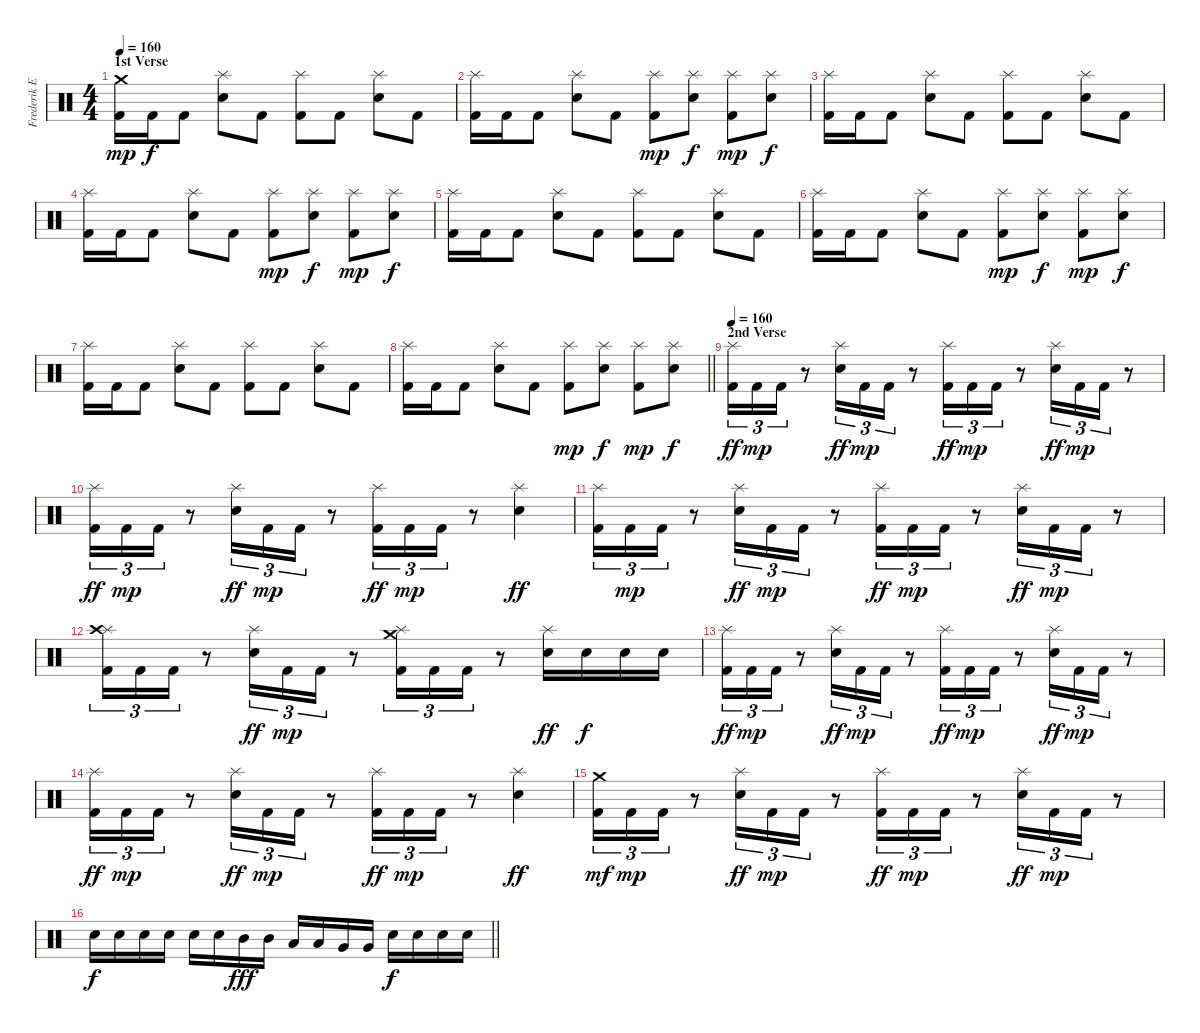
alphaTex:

\track ("Frederik Ehmke" "Frederik E") {instrument percussion}
\staff {score}
\articulation defaults
\ts (4 4)
\section ("" "1st Verse")
\tempo 160
\clef neutral
\ks c
("Crash medium (hit)" "Kick (hit) 2").16{dy mp} "Kick (hit) 2".16{dy f} "Kick (hit) 2".8 ("Splash (hit)" "Electric Snare (hit)").8 "Kick (hit) 2".8 ("Splash (hit)" "Kick (hit) 2").8 "Kick (hit) 2".8 ("Splash (hit)" "Electric Snare (hit)").8 "Kick (hit) 2".8 |
("Splash (hit)" "Kick (hit) 2").16 "Kick (hit) 2".16 "Kick (hit) 2".8 ("Splash (hit)" "Electric Snare (hit)").8 "Kick (hit) 2".8 ("Splash (hit)" "Kick (hit) 2").8{dy mp} ("Splash (hit)" "Electric Snare (hit)").8{dy f} ("Splash (hit)" "Kick (hit) 2").8{dy mp} ("Splash (hit)" "Electric Snare (hit)").8{dy f} |
("Splash (hit)" "Kick (hit) 2").16 "Kick (hit) 2".16 "Kick (hit) 2".8 ("Splash (hit)" "Electric Snare (hit)").8 "Kick (hit) 2".8 ("Splash (hit)" "Kick (hit) 2").8 "Kick (hit) 2".8 ("Splash (hit)" "Electric Snare (hit)").8 "Kick (hit) 2".8 |
("Splash (hit)" "Kick (hit) 2").16 "Kick (hit) 2".16 "Kick (hit) 2".8 ("Splash (hit)" "Electric Snare (hit)").8 "Kick (hit) 2".8 ("Splash (hit)" "Kick (hit) 2").8{dy mp} ("Splash (hit)" "Electric Snare (hit)").8{dy f} ("Splash (hit)" "Kick (hit) 2").8{dy mp} ("Splash (hit)" "Electric Snare (hit)").8{dy f} |
("Splash (hit)" "Kick (hit) 2").16 "Kick (hit) 2".16 "Kick (hit) 2".8 ("Splash (hit)" "Electric Snare (hit)").8 "Kick (hit) 2".8 ("Splash (hit)" "Kick (hit) 2").8 "Kick (hit) 2".8 ("Splash (hit)" "Electric Snare (hit)").8 "Kick (hit) 2".8 |
("Splash (hit)" "Kick (hit) 2").16 "Kick (hit) 2".16 "Kick (hit) 2".8 ("Splash (hit)" "Electric Snare (hit)").8 "Kick (hit) 2".8 ("Splash (hit)" "Kick (hit) 2").8{dy mp} ("Splash (hit)" "Electric Snare (hit)").8{dy f} ("Splash (hit)" "Kick (hit) 2").8{dy mp} ("Splash (hit)" "Electric Snare (hit)").8{dy f} |
("Splash (hit)" "Kick (hit) 2").16 "Kick (hit) 2".16 "Kick (hit) 2".8 ("Splash (hit)" "Electric Snare (hit)").8 "Kick (hit) 2".8 ("Splash (hit)" "Kick (hit) 2").8 "Kick (hit) 2".8 ("Splash (hit)" "Electric Snare (hit)").8 "Kick (hit) 2".8 |
\barLineRight lightlight
("Splash (hit)" "Kick (hit) 2").16 "Kick (hit) 2".16 "Kick (hit) 2".8 ("Splash (hit)" "Electric Snare (hit)").8 "Kick (hit) 2".8 ("Splash (hit)" "Kick (hit) 2").8{dy mp} ("Splash (hit)" "Electric Snare (hit)").8{dy f} ("Splash (hit)" "Kick (hit) 2").8{dy mp} ("Splash (hit)" "Electric Snare (hit)").8{dy f} |
\section ("" "2nd Verse")
\tempo 160
("Splash (hit)" "Kick (hit) 2").16{tu (3 2) dy ff} "Kick (hit) 2".16{tu (3 2) dy mp} "Kick (hit) 2".16{tu (3 2)} r.8 ("Splash (hit)" "Electric Snare (hit)").16{tu (3 2) dy ff} "Kick (hit) 2".16{tu (3 2) dy mp} "Kick (hit) 2".16{tu (3 2)} r.8 ("Splash (hit)" "Kick (hit) 2").16{tu (3 2) dy ff} "Kick (hit) 2".16{tu (3 2) dy mp} "Kick (hit) 2".16{tu (3 2)} r.8 ("Splash (hit)" "Electric Snare (hit)").16{tu (3 2) dy ff} "Kick (hit) 2".16{tu (3 2) dy mp} "Kick (hit) 2".16{tu (3 2)} r.8 |
("Splash (hit)" "Kick (hit) 2").16{tu (3 2) dy ff} "Kick (hit) 2".16{tu (3 2) dy mp} "Kick (hit) 2".16{tu (3 2)} r.8 ("Splash (hit)" "Electric Snare (hit)").16{tu (3 2) dy ff} "Kick (hit) 2".16{tu (3 2) dy mp} "Kick (hit) 2".16{tu (3 2)} r.8 ("Splash (hit)" "Kick (hit) 2").16{tu (3 2) dy ff} "Kick (hit) 2".16{tu (3 2) dy mp} "Kick (hit) 2".16{tu (3 2)} r.8 ("Splash (hit)" "Electric Snare (hit)").4{dy ff} |
("Splash (hit)" "Kick (hit) 2").16{tu (3 2)} "Kick (hit) 2".16{tu (3 2) dy mp} "Kick (hit) 2".16{tu (3 2)} r.8 ("Splash (hit)" "Electric Snare (hit)").16{tu (3 2) dy ff} "Kick (hit) 2".16{tu (3 2) dy mp} "Kick (hit) 2".16{tu (3 2)} r.8 ("Splash (hit)" "Kick (hit) 2").16{tu (3 2) dy ff} "Kick (hit) 2".16{tu (3 2) dy mp} "Kick (hit) 2".16{tu (3 2)} r.8 ("Splash (hit)" "Electric Snare (hit)").16{tu (3 2) dy ff} "Kick (hit) 2".16{tu (3 2) dy mp} "Kick (hit) 2".16{tu (3 2)} r.8 |
("Splash (hit)" "Crash high (hit)" "Kick (hit) 2").16{tu (3 2)} "Kick (hit) 2".16{tu (3 2)} "Kick (hit) 2".16{tu (3 2)} r.8 ("Splash (hit)" "Electric Snare (hit)").16{tu (3 2) dy ff} "Kick (hit) 2".16{tu (3 2) dy mp} "Kick (hit) 2".16{tu (3 2)} r.8 ("Splash (hit)" "Crash medium (hit)" "Kick (hit) 2").16{tu (3 2)} "Kick (hit) 2".16{tu (3 2)} "Kick (hit) 2".16{tu (3 2)} r.8 ("Splash (hit)" "Electric Snare (hit)").16{dy ff} "Electric Snare (hit)".16{dy f} "Electric Snare (hit)".16 "Electric Snare (hit)".16 |
("Splash (hit)" "Kick (hit) 2").16{tu (3 2) dy ff} "Kick (hit) 2".16{tu (3 2) dy mp} "Kick (hit) 2".16{tu (3 2)} r.8 ("Splash (hit)" "Electric Snare (hit)").16{tu (3 2) dy ff} "Kick (hit) 2".16{tu (3 2) dy mp} "Kick (hit) 2".16{tu (3 2)} r.8 ("Splash (hit)" "Kick (hit) 2").16{tu (3 2) dy ff} "Kick (hit) 2".16{tu (3 2) dy mp} "Kick (hit) 2".16{tu (3 2)} r.8 ("Splash (hit)" "Electric Snare (hit)").16{tu (3 2) dy ff} "Kick (hit) 2".16{tu (3 2) dy mp} "Kick (hit) 2".16{tu (3 2)} r.8 |
("Splash (hit)" "Kick (hit) 2").16{tu (3 2) dy ff} "Kick (hit) 2".16{tu (3 2) dy mp} "Kick (hit) 2".16{tu (3 2)} r.8 ("Splash (hit)" "Electric Snare (hit)").16{tu (3 2) dy ff} "Kick (hit) 2".16{tu (3 2) dy mp} "Kick (hit) 2".16{tu (3 2)} r.8 ("Splash (hit)" "Kick (hit) 2").16{tu (3 2) dy ff} "Kick (hit) 2".16{tu (3 2) dy mp} "Kick (hit) 2".16{tu (3 2)} r.8 ("Splash (hit)" "Electric Snare (hit)").4{dy ff} |
("Crash medium (hit)" "Kick (hit) 2").16{tu (3 2) dy mf} "Kick (hit) 2".16{tu (3 2) dy mp} "Kick (hit) 2".16{tu (3 2)} r.8 ("Splash (hit)" "Electric Snare (hit)").16{tu (3 2) dy ff} "Kick (hit) 2".16{tu (3 2) dy mp} "Kick (hit) 2".16{tu (3 2)} r.8 ("Splash (hit)" "Kick (hit) 2").16{tu (3 2) dy ff} "Kick (hit) 2".16{tu (3 2) dy mp} "Kick (hit) 2".16{tu (3 2)} r.8 ("Splash (hit)" "Electric Snare (hit)").16{tu (3 2) dy ff} "Kick (hit) 2".16{tu (3 2) dy mp} "Kick (hit) 2".16{tu (3 2)} r.8 |
\barLineRight lightlight "Electric Snare (hit)".16{dy f} "Electric Snare (hit)".16 "Electric Snare (hit)".16 "Electric Snare (hit)".16 "Electric Snare (hit)".16 "Electric Snare (hit)".16 "Mid Tom (hit)".16{dy fff} "Mid Tom (hit)".16 "Low Tom (hit)".16 "Low Tom (hit)".16 "Very Low Tom (hit)".16 "Very Low Tom (hit)".16 "Electric Snare (hit)".16{dy f} "Electric Snare (hit)".16 "Electric Snare (hit)".16 "Electric Snare (hit)".16
